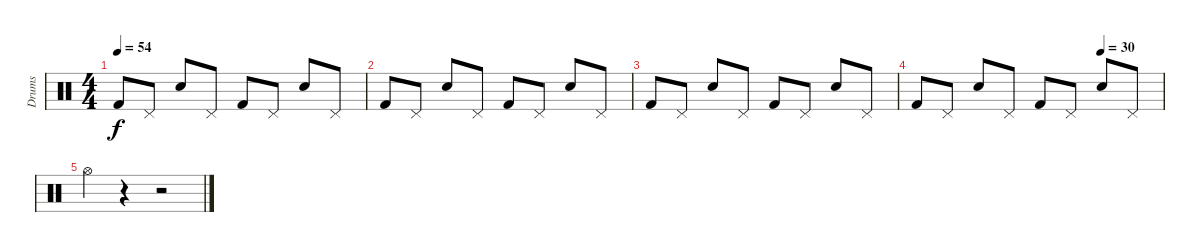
\track ("Drums" "Drums") {instrument percussion}
\staff {score}
\articulation defaults
\ts (4 4)
\tempo 54
\clef neutral
\ks c "Kick (hit) 2".8{dy f} "Pedal Hi-Hat (hit)".8 "Electric Snare (hit)".8 "Pedal Hi-Hat (hit)".8 "Kick (hit) 2".8 "Pedal Hi-Hat (hit)".8 "Electric Snare (hit)".8 "Pedal Hi-Hat (hit)".8
|
"Kick (hit) 2".8 "Pedal Hi-Hat (hit)".8 "Electric Snare (hit)".8 "Pedal Hi-Hat (hit)".8 "Kick (hit) 2".8 "Pedal Hi-Hat (hit)".8 "Electric Snare (hit)".8 "Pedal Hi-Hat (hit)".8 |
"Kick (hit) 2".8 "Pedal Hi-Hat (hit)".8 "Electric Snare (hit)".8 "Pedal Hi-Hat (hit)".8 "Kick (hit) 2".8 "Pedal Hi-Hat (hit)".8 "Electric Snare (hit)".8 "Pedal Hi-Hat (hit)".8 |
\tempo (30 0.75)
"Kick (hit) 2".8 "Pedal Hi-Hat (hit)".8 "Electric Snare (hit)".8 "Pedal Hi-Hat (hit)".8 "Kick (hit) 2".8 "Pedal Hi-Hat (hit)".8 "Electric Snare (hit)".8 "Pedal Hi-Hat (hit)".8 |
"Hi-Hat (open)".4 r.4 r.2
